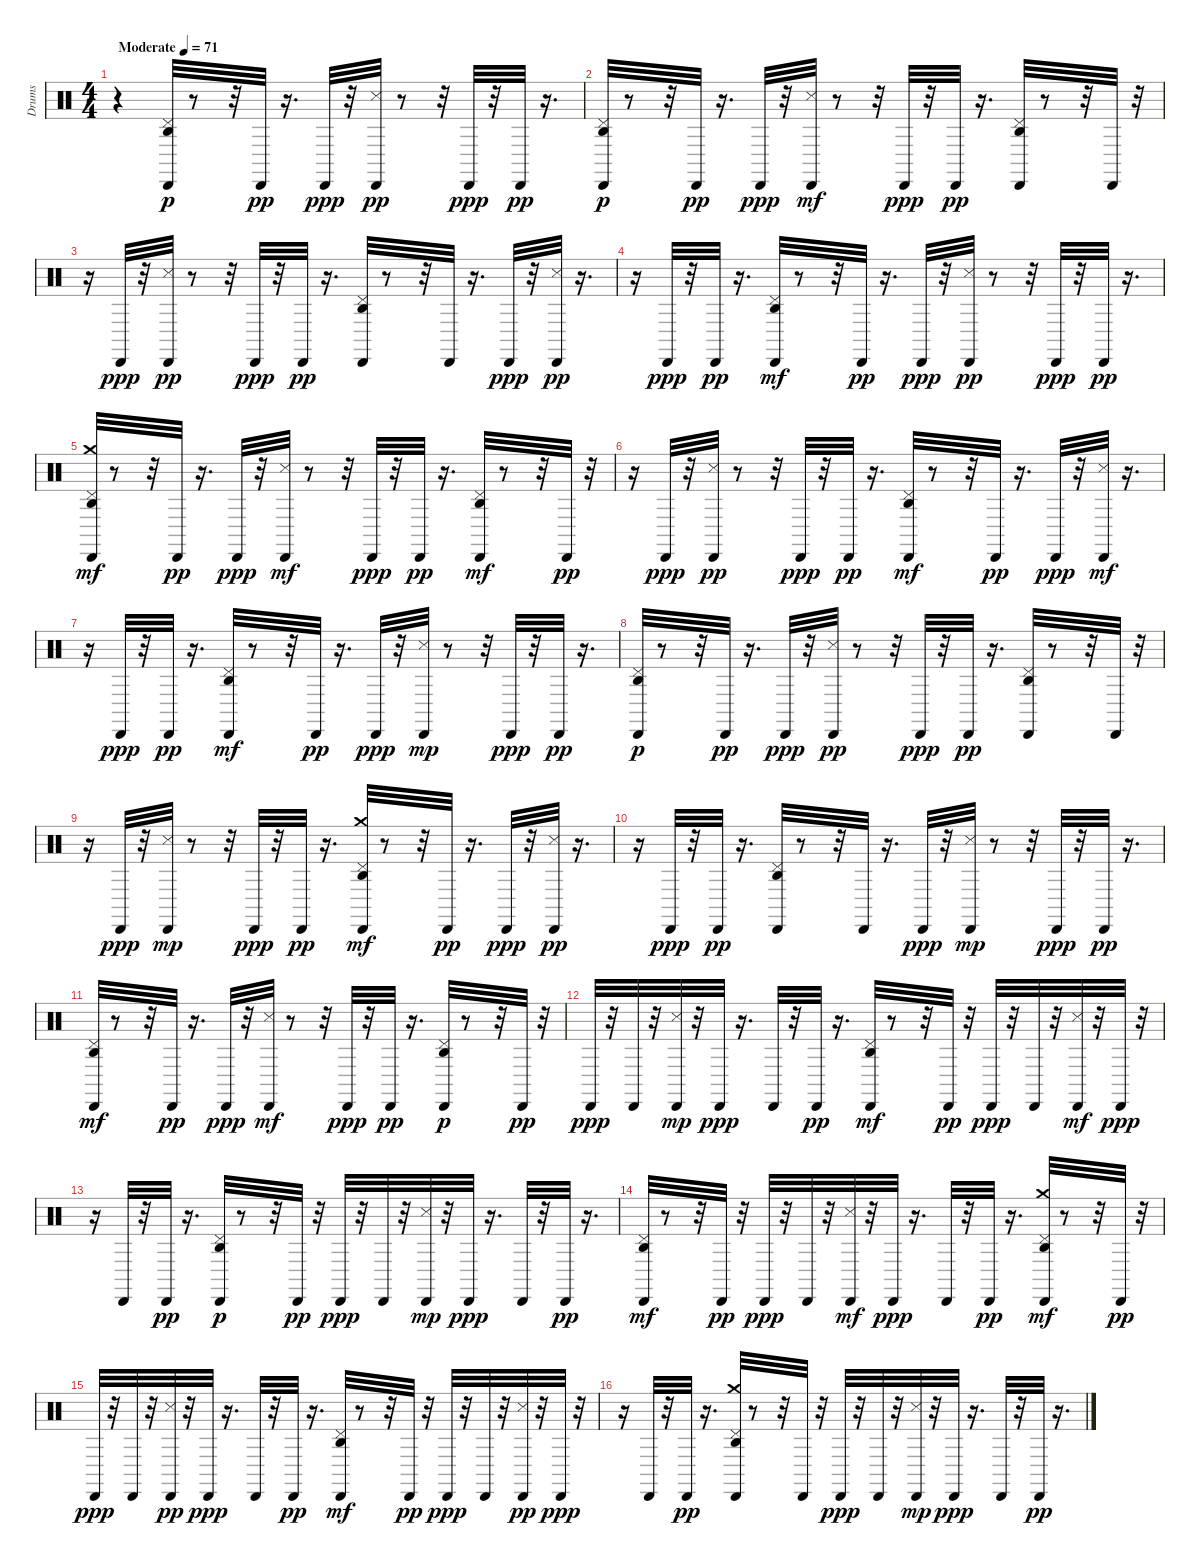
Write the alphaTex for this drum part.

\track ("Drums" "Drums") {instrument percussion}
\staff {score}
\articulation defaults
\ts (4 4)
\tempo (71 "Moderate")
\clef neutral
\ks c
r.4{dy p} ("Cabasa (hit)" "Pedal Hi-Hat (hit)" "Agogo high (hit)").32 r.8 r.32 "Cabasa (hit)".32{dy pp} r.16{d} "Cabasa (hit)".32{dy ppp} r.32 ("Metronome (hit)" "Cabasa (hit)").32{dy pp} r.8 r.32 "Cabasa (hit)".32{dy ppp} r.32 "Cabasa (hit)".32{dy pp} r.16{d} |
("Cabasa (hit)" "Pedal Hi-Hat (hit)" "Agogo high (hit)").32{dy p} r.8 r.32 "Cabasa (hit)".32{dy pp} r.16{d} "Cabasa (hit)".32{dy ppp} r.32 ("Cabasa (hit)" "Metronome (hit)").32{dy mf} r.8 r.32 "Cabasa (hit)".32{dy ppp} r.32 "Cabasa (hit)".32{dy pp} r.16{d} ("Agogo high (hit)" "Pedal Hi-Hat (hit)" "Cabasa (hit)").32 r.8 r.32 "Cabasa (hit)".32 r.32 |
r.16 "Cabasa (hit)".32{dy ppp} r.32 ("Metronome (hit)" "Cabasa (hit)").32{dy pp} r.8 r.32 "Cabasa (hit)".32{dy ppp} r.32 "Cabasa (hit)".32{dy pp} r.16{d} ("Pedal Hi-Hat (hit)" "Agogo high (hit)" "Cabasa (hit)").32 r.8 r.32 "Cabasa (hit)".32 r.16{d} "Cabasa (hit)".32{dy ppp} r.32 ("Metronome (hit)" "Cabasa (hit)").32{dy pp} r.16{d} |
r.16 "Cabasa (hit)".32{dy ppp} r.32 "Cabasa (hit)".32{dy pp} r.16{d} ("Cabasa (hit)" "Agogo high (hit)" "Pedal Hi-Hat (hit)").32{dy mf} r.8 r.32 "Cabasa (hit)".32{dy pp} r.16{d} "Cabasa (hit)".32{dy ppp} r.32 ("Metronome (hit)" "Cabasa (hit)").32{dy pp} r.8 r.32 "Cabasa (hit)".32{dy ppp} r.32 "Cabasa (hit)".32{dy pp} r.16{d} |
("Cabasa (hit)" "Agogo high (hit)" "Pedal Hi-Hat (hit)" "Crash medium (hit)").32{dy mf} r.8 r.32 "Cabasa (hit)".32{dy pp} r.16{d} "Cabasa (hit)".32{dy ppp} r.32 ("Cabasa (hit)" "Metronome (hit)").32{dy mf} r.8 r.32 "Cabasa (hit)".32{dy ppp} r.32 "Cabasa (hit)".32{dy pp} r.16{d} ("Agogo high (hit)" "Cabasa (hit)" "Pedal Hi-Hat (hit)").32{dy mf} r.8 r.32 "Cabasa (hit)".32{dy pp} r.32 |
r.16 "Cabasa (hit)".32{dy ppp} r.32 ("Metronome (hit)" "Cabasa (hit)").32{dy pp} r.8 r.32 "Cabasa (hit)".32{dy ppp} r.32 "Cabasa (hit)".32{dy pp} r.16{d} ("Agogo high (hit)" "Cabasa (hit)" "Pedal Hi-Hat (hit)").32{dy mf} r.8 r.32 "Cabasa (hit)".32{dy pp} r.16{d} "Cabasa (hit)".32{dy ppp} r.32 ("Cabasa (hit)" "Metronome (hit)").32{dy mf} r.16{d} |
r.16 "Cabasa (hit)".32{dy ppp} r.32 "Cabasa (hit)".32{dy pp} r.16{d} ("Agogo high (hit)" "Cabasa (hit)" "Pedal Hi-Hat (hit)").32{dy mf} r.8 r.32 "Cabasa (hit)".32{dy pp} r.16{d} "Cabasa (hit)".32{dy ppp} r.32 ("Cabasa (hit)" "Metronome (hit)").32{dy mp} r.8 r.32 "Cabasa (hit)".32{dy ppp} r.32 "Cabasa (hit)".32{dy pp} r.16{d} |
("Cabasa (hit)" "Pedal Hi-Hat (hit)" "Agogo high (hit)").32{dy p} r.8 r.32 "Cabasa (hit)".32{dy pp} r.16{d} "Cabasa (hit)".32{dy ppp} r.32 ("Metronome (hit)" "Cabasa (hit)").32{dy pp} r.8 r.32 "Cabasa (hit)".32{dy ppp} r.32 "Cabasa (hit)".32{dy pp} r.16{d} ("Pedal Hi-Hat (hit)" "Agogo high (hit)" "Cabasa (hit)").32 r.8 r.32 "Cabasa (hit)".32 r.32 |
r.16 "Cabasa (hit)".32{dy ppp} r.32 ("Cabasa (hit)" "Metronome (hit)").32{dy mp} r.8 r.32 "Cabasa (hit)".32{dy ppp} r.32 "Cabasa (hit)".32{dy pp} r.16{d} ("Cabasa (hit)" "Agogo high (hit)" "Pedal Hi-Hat (hit)" "Crash medium (hit)").32{dy mf} r.8 r.32 "Cabasa (hit)".32{dy pp} r.16{d} "Cabasa (hit)".32{dy ppp} r.32 ("Metronome (hit)" "Cabasa (hit)").32{dy pp} r.16{d} |
r.16 "Cabasa (hit)".32{dy ppp} r.32 "Cabasa (hit)".32{dy pp} r.16{d} ("Pedal Hi-Hat (hit)" "Agogo high (hit)" "Cabasa (hit)").32 r.8 r.32 "Cabasa (hit)".32 r.16{d} "Cabasa (hit)".32{dy ppp} r.32 ("Cabasa (hit)" "Metronome (hit)").32{dy mp} r.8 r.32 "Cabasa (hit)".32{dy ppp} r.32 "Cabasa (hit)".32{dy pp} r.16{d} |
("Agogo high (hit)" "Cabasa (hit)" "Pedal Hi-Hat (hit)").32{dy mf} r.8 r.32 "Cabasa (hit)".32{dy pp} r.16{d} "Cabasa (hit)".32{dy ppp} r.32 ("Cabasa (hit)" "Metronome (hit)").32{dy mf} r.8 r.32 "Cabasa (hit)".32{dy ppp} r.32 "Cabasa (hit)".32{dy pp} r.16{d} ("Cabasa (hit)" "Pedal Hi-Hat (hit)" "Agogo high (hit)").32{dy p} r.8 r.32 "Cabasa (hit)".32{dy pp} r.32 |
"Cabasa (hit)".32{dy ppp} r.32 "Cabasa (hit)".32 r.32 ("Cabasa (hit)" "Metronome (hit)").32{dy mp} r.32 "Cabasa (hit)".32{dy ppp} r.16{d} "Cabasa (hit)".32 r.32 "Cabasa (hit)".32{dy pp} r.16{d} ("Cabasa (hit)" "Agogo high (hit)" "Pedal Hi-Hat (hit)").32{dy mf} r.8 r.32 "Cabasa (hit)".32{dy pp} r.32 "Cabasa (hit)".32{dy ppp} r.32 "Cabasa (hit)".32 r.32 ("Cabasa (hit)" "Metronome (hit)").32{dy mf} r.32 "Cabasa (hit)".32{dy ppp} r.32 |
r.16 "Cabasa (hit)".32 r.32 "Cabasa (hit)".32{dy pp} r.16{d} ("Pedal Hi-Hat (hit)" "Cabasa (hit)" "Agogo high (hit)").32{dy p} r.8 r.32 "Cabasa (hit)".32{dy pp} r.32 "Cabasa (hit)".32{dy ppp} r.32 "Cabasa (hit)".32 r.32 ("Cabasa (hit)" "Metronome (hit)").32{dy mp} r.32 "Cabasa (hit)".32{dy ppp} r.16{d} "Cabasa (hit)".32 r.32 "Cabasa (hit)".32{dy pp} r.16{d} |
("Agogo high (hit)" "Cabasa (hit)" "Pedal Hi-Hat (hit)").32{dy mf} r.8 r.32 "Cabasa (hit)".32{dy pp} r.32 "Cabasa (hit)".32{dy ppp} r.32 "Cabasa (hit)".32 r.32 ("Cabasa (hit)" "Metronome (hit)").32{dy mf} r.32 "Cabasa (hit)".32{dy ppp} r.16{d} "Cabasa (hit)".32 r.32 "Cabasa (hit)".32{dy pp} r.16{d} ("Agogo high (hit)" "Cabasa (hit)" "Pedal Hi-Hat (hit)" "Crash medium (hit)").32{dy mf} r.8 r.32 "Cabasa (hit)".32{dy pp} r.32 |
"Cabasa (hit)".32{dy ppp} r.32 "Cabasa (hit)".32 r.32 ("Metronome (hit)" "Cabasa (hit)").32{dy pp} r.32 "Cabasa (hit)".32{dy ppp} r.16{d} "Cabasa (hit)".32 r.32 "Cabasa (hit)".32{dy pp} r.16{d} ("Cabasa (hit)" "Agogo high (hit)" "Pedal Hi-Hat (hit)").32{dy mf} r.8 r.32 "Cabasa (hit)".32{dy pp} r.32 "Cabasa (hit)".32{dy ppp} r.32 "Cabasa (hit)".32 r.32 ("Metronome (hit)" "Cabasa (hit)").32{dy pp} r.32 "Cabasa (hit)".32{dy ppp} r.32 |
r.16 "Cabasa (hit)".32 r.32 "Cabasa (hit)".32{dy pp} r.16{d} ("Pedal Hi-Hat (hit)" "Agogo high (hit)" "Cabasa (hit)" "Crash medium (hit)").32 r.8 r.32 "Cabasa (hit)".32 r.32 "Cabasa (hit)".32{dy ppp} r.32 "Cabasa (hit)".32 r.32 ("Cabasa (hit)" "Metronome (hit)").32{dy mp} r.32 "Cabasa (hit)".32{dy ppp} r.16{d} "Cabasa (hit)".32 r.32 "Cabasa (hit)".32{dy pp} r.16{d}
